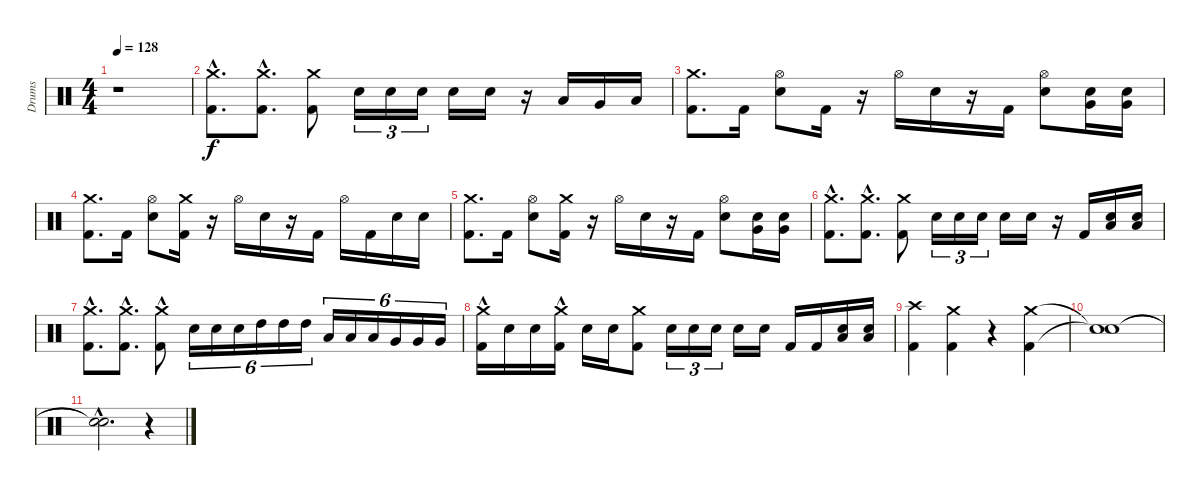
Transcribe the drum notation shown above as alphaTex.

\track ("Drums" "Drums") {instrument percussion}
\staff {score}
\articulation defaults
\ts (4 4)
\tempo 128
\clef neutral
\ks c
r.1{dy f} |
("Crash medium (hit)"{hac} "Kick (hit) 2"{hac}).8{d} ("Crash medium (hit)"{hac} "Kick (hit) 2"{hac}).8{d} ("Crash medium (hit)" "Kick (hit) 2").8 "Electric Snare (hit)".16{tu (3 2) volume 4} "Electric Snare (hit)".16{tu (3 2) volume 10} "Electric Snare (hit)".16{tu (3 2) volume 16} "Electric Snare (hit)".16 "Electric Snare (hit)".16 r.16 "Low Tom (hit)".16 "Very Low Tom (hit)".16 "Low Floor Tom (hit)".16 |
("Crash medium (hit)" "Kick (hit) 2").8{d} "Kick (hit) 2".16 ("Hi-Hat (open)" "Electric Snare (hit)").8 "Kick (hit) 2".16 r.16 "Hi-Hat (open)".16 "Electric Snare (hit)".16 r.16 "Kick (hit) 2".16 ("Hi-Hat (open)" "Electric Snare (hit)").8 ("Electric Snare (hit)" "Very Low Tom (hit)").16 ("Electric Snare (hit)" "Very Low Tom (hit)").16 |
("Crash medium (hit)" "Kick (hit) 2").8{d} "Kick (hit) 2".16 ("Hi-Hat (open)" "Electric Snare (hit)").8 ("Crash medium (hit)" "Kick (hit) 2").16 r.16 "Hi-Hat (open)".16 "Electric Snare (hit)".16 r.16 "Kick (hit) 2".16 "Hi-Hat (open)".16 "Kick (hit) 2".16 "Electric Snare (hit)".16 "Electric Snare (hit)".16 |
("Crash medium (hit)" "Kick (hit) 2").8{d} "Kick (hit) 2".16 ("Hi-Hat (open)" "Electric Snare (hit)").8 ("Crash medium (hit)" "Kick (hit) 2").16 r.16 "Hi-Hat (open)".16 "Electric Snare (hit)".16 r.16 "Kick (hit) 2".16 ("Electric Snare (hit)" "Hi-Hat (open)").8 ("Very Low Tom (hit)" "Electric Snare (hit)").16 ("Very Low Tom (hit)" "Electric Snare (hit)").16 |
("Crash medium (hit)"{hac} "Kick (hit) 2"{hac}).8{d} ("Crash medium (hit)"{hac} "Kick (hit) 2"{hac}).8{d} ("Crash medium (hit)" "Kick (hit) 2").8 "Electric Snare (hit)".16{tu (3 2) volume 4} "Electric Snare (hit)".16{tu (3 2) volume 10} "Electric Snare (hit)".16{tu (3 2) volume 16} "Electric Snare (hit)".16 "Electric Snare (hit)".16 r.16 "Kick (hit) 2".16 ("Electric Snare (hit)" "Low Floor Tom (hit)").16 ("Electric Snare (hit)" "Low Floor Tom (hit)").16 |
("Crash medium (hit)"{hac} "Kick (hit) 2"{hac}).8{d} ("Crash medium (hit)"{hac} "Kick (hit) 2"{hac}).8{d} ("Kick (hit) 2" "Crash medium (hit)"{hac}).8 "Electric Snare (hit)".16{tu (6 4)} "Electric Snare (hit)".16{tu (6 4)} "Electric Snare (hit)".16{tu (6 4)} "High Tom (hit)".16{tu (6 4)} "High Tom (hit)".16{tu (6 4)} "High Tom (hit)".16{tu (6 4)} "Low Tom (hit)".16{tu (6 4)} "Low Tom (hit)".16{tu (6 4)} "Low Tom (hit)".16{tu (6 4)} "Very Low Tom (hit)".16{tu (6 4)} "Very Low Tom (hit)".16{tu (6 4)} "Very Low Tom (hit)".16{tu (6 4)} |
("Crash medium (hit)"{hac} "Kick (hit) 2"{hac}).16 "Electric Snare (hit)".16 "Electric Snare (hit)".16 ("Crash medium (hit)"{hac} "Kick (hit) 2"{hac}).16 "Electric Snare (hit)".16 "Electric Snare (hit)".16 ("Crash medium (hit)" "Kick (hit) 2").8 "Electric Snare (hit)".16{tu (3 2) volume 4} "Electric Snare (hit)".16{tu (3 2) volume 10} "Electric Snare (hit)".16{tu (3 2) volume 16} "Electric Snare (hit)".16 "Electric Snare (hit)".16 "Kick (hit) 2".16 "Kick (hit) 2".16 ("Electric Snare (hit)" "Low Floor Tom (hit)").16 ("Electric Snare (hit)" "Low Floor Tom (hit)").16 |
("Crash high (hit)" "Kick (hit) 2").4 ("Crash medium (hit)" "Kick (hit) 2").4 r.4 ("Crash medium (hit)" "Kick (hit) 2").4 |
("Snare (hit)"{t} "Snare (hit)"{t}).1 |
("Snare (hit)"{hac t} "Snare (hit)"{hac t}).2{d} r.4
